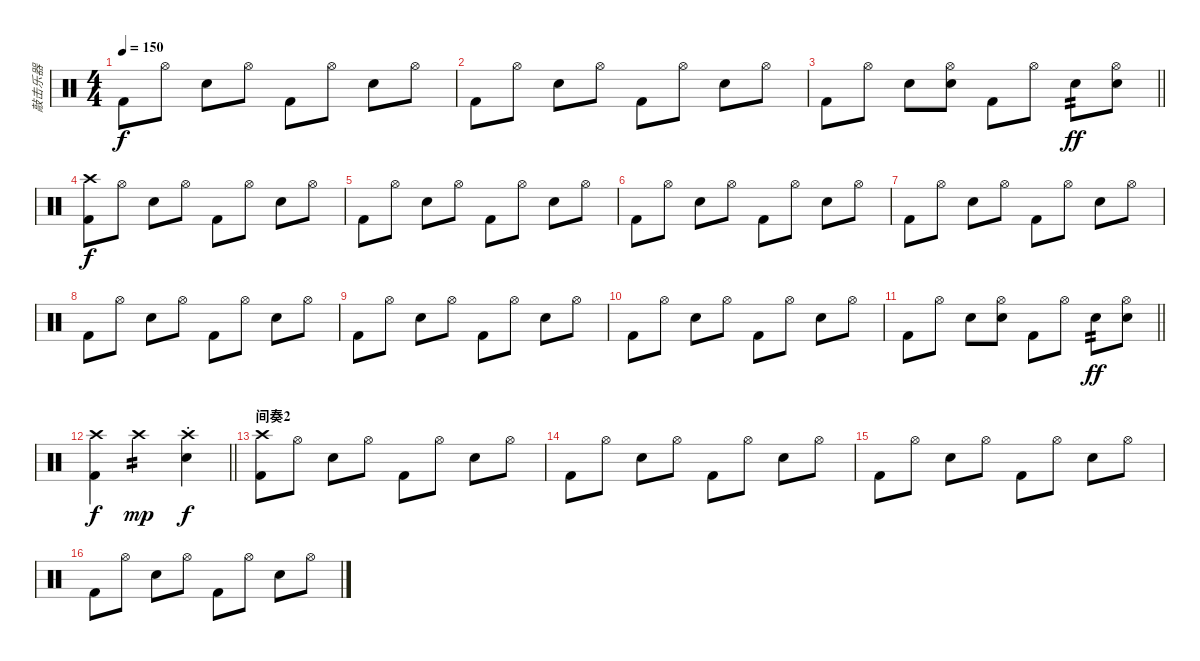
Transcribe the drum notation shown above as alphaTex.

\track ("敲击乐器" "敲击乐器") {instrument percussion}
\staff {score}
\articulation defaults
\ts (4 4)
\tempo 150
\clef neutral
\ks c "Kick (hit) 2".8{dy f} "Hi-Hat (open)".8 "Snare (hit) 2".8 "Hi-Hat (open)".8 "Kick (hit) 2".8 "Hi-Hat (open)".8 "Snare (hit) 2".8 "Hi-Hat (open)".8
|
"Kick (hit) 2".8 "Hi-Hat (open)".8 "Snare (hit) 2".8 "Hi-Hat (open)".8 "Kick (hit) 2".8 "Hi-Hat (open)".8 "Snare (hit) 2".8 "Hi-Hat (open)".8 |
\barLineRight lightlight "Kick (hit) 2".8 "Hi-Hat (open)".8 "Snare (hit) 2".8
("Hi-Hat (open)" "Snare (hit) 2").8 "Kick (hit) 2".8 "Hi-Hat (open)".8 "Snare (hit) 2".8{tp 2 dy ff} ("Hi-Hat (open)" "Snare (hit) 2").8 |
("Crash high (hit)" "Kick (hit) 2").8{dy f} "Hi-Hat (open)".8 "Snare (hit) 2".8 "Hi-Hat (open)".8 "Kick (hit) 2".8 "Hi-Hat (open)".8 "Snare (hit) 2".8 "Hi-Hat (open)".8 |
"Kick (hit) 2".8 "Hi-Hat (open)".8 "Snare (hit) 2".8 "Hi-Hat (open)".8 "Kick (hit) 2".8 "Hi-Hat (open)".8 "Snare (hit) 2".8 "Hi-Hat (open)".8 |
"Kick (hit) 2".8 "Hi-Hat (open)".8 "Snare (hit) 2".8 "Hi-Hat (open)".8 "Kick (hit) 2".8 "Hi-Hat (open)".8 "Snare (hit) 2".8 "Hi-Hat (open)".8 |
"Kick (hit) 2".8 "Hi-Hat (open)".8 "Snare (hit) 2".8 "Hi-Hat (open)".8 "Kick (hit) 2".8 "Hi-Hat (open)".8 "Snare (hit) 2".8 "Hi-Hat (open)".8 |
"Kick (hit) 2".8 "Hi-Hat (open)".8 "Snare (hit) 2".8 "Hi-Hat (open)".8 "Kick (hit) 2".8 "Hi-Hat (open)".8 "Snare (hit) 2".8 "Hi-Hat (open)".8 |
"Kick (hit) 2".8 "Hi-Hat (open)".8 "Snare (hit) 2".8 "Hi-Hat (open)".8 "Kick (hit) 2".8 "Hi-Hat (open)".8 "Snare (hit) 2".8 "Hi-Hat (open)".8 |
"Kick (hit) 2".8 "Hi-Hat (open)".8 "Snare (hit) 2".8 "Hi-Hat (open)".8 "Kick (hit) 2".8 "Hi-Hat (open)".8 "Snare (hit) 2".8 "Hi-Hat (open)".8 |
\barLineRight lightlight "Kick (hit) 2".8 "Hi-Hat (open)".8 "Snare (hit) 2".8
("Hi-Hat (open)" "Snare (hit) 2").8 "Kick (hit) 2".8 "Hi-Hat (open)".8 "Snare (hit) 2".8{tp 2 dy ff} ("Hi-Hat (open)" "Snare (hit) 2").8 |
\barLineRight lightlight
("Crash high (hit)" "Kick (hit) 2").4{dy f} "Crash high (hit)".2{tp 2 dy mp} ("Crash high (hit)"{st} "Snare (hit) 2"{st}).4{dy f} |
\section ("" "间奏2")
("Crash high (hit)" "Kick (hit) 2").8 "Hi-Hat (open)".8 "Snare (hit) 2".8 "Hi-Hat (open)".8 "Kick (hit) 2".8 "Hi-Hat (open)".8 "Snare (hit) 2".8 "Hi-Hat (open)".8 |
"Kick (hit) 2".8 "Hi-Hat (open)".8 "Snare (hit) 2".8 "Hi-Hat (open)".8 "Kick (hit) 2".8 "Hi-Hat (open)".8 "Snare (hit) 2".8 "Hi-Hat (open)".8 |
"Kick (hit) 2".8 "Hi-Hat (open)".8 "Snare (hit) 2".8 "Hi-Hat (open)".8 "Kick (hit) 2".8 "Hi-Hat (open)".8 "Snare (hit) 2".8 "Hi-Hat (open)".8 |
"Kick (hit) 2".8 "Hi-Hat (open)".8 "Snare (hit) 2".8 "Hi-Hat (open)".8 "Kick (hit) 2".8 "Hi-Hat (open)".8 "Snare (hit) 2".8 "Hi-Hat (open)".8
